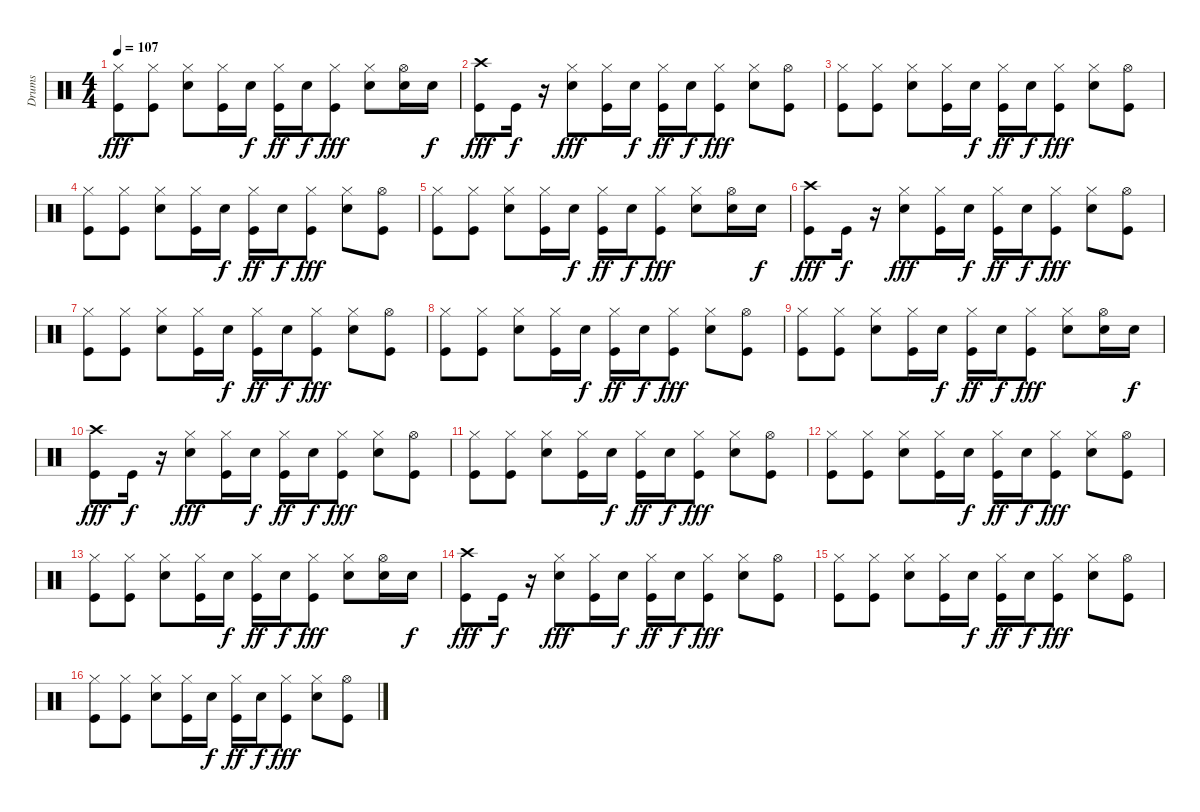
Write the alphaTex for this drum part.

\track ("Drums" "Drums") {instrument percussion}
\staff {score}
\articulation defaults
\ts (4 4)
\tempo 107
\clef neutral
\ks c
("Kick (hit)" "Hi-Hat (closed)").8{dy fff} ("Kick (hit)" "Hi-Hat (closed)").8 ("Electric Snare (hit)" "Hi-Hat (closed)").8 ("Kick (hit)" "Hi-Hat (closed)").16 "Electric Snare (hit)".16{dy f} ("Kick (hit)" "Hi-Hat (closed)").16{dy ff} "Electric Snare (hit)".16{dy f} ("Kick (hit)" "Hi-Hat (closed)").8{dy fff} ("Electric Snare (hit)" "Hi-Hat (closed)").8 ("Electric Snare (hit)" "Hi-Hat (open)").16 "Electric Snare (hit)".16{dy f} |
("Kick (hit)" "Crash high (hit)").8{dy fff} "Kick (hit)".16{dy f} r.16 ("Electric Snare (hit)" "Hi-Hat (closed)").8{dy fff} ("Kick (hit)" "Hi-Hat (closed)").16 "Electric Snare (hit)".16{dy f} ("Kick (hit)" "Hi-Hat (closed)").16{dy ff} "Electric Snare (hit)".16{dy f} ("Kick (hit)" "Hi-Hat (closed)").8{dy fff} ("Electric Snare (hit)" "Hi-Hat (closed)").8 ("Kick (hit)" "Hi-Hat (open)").8 |
("Kick (hit)" "Hi-Hat (closed)").8 ("Kick (hit)" "Hi-Hat (closed)").8 ("Electric Snare (hit)" "Hi-Hat (closed)").8 ("Kick (hit)" "Hi-Hat (closed)").16 "Electric Snare (hit)".16{dy f} ("Kick (hit)" "Hi-Hat (closed)").16{dy ff} "Electric Snare (hit)".16{dy f} ("Kick (hit)" "Hi-Hat (closed)").8{dy fff} ("Electric Snare (hit)" "Hi-Hat (closed)").8 ("Kick (hit)" "Hi-Hat (open)").8 |
("Kick (hit)" "Hi-Hat (closed)").8 ("Kick (hit)" "Hi-Hat (closed)").8 ("Electric Snare (hit)" "Hi-Hat (closed)").8 ("Kick (hit)" "Hi-Hat (closed)").16 "Electric Snare (hit)".16{dy f} ("Kick (hit)" "Hi-Hat (closed)").16{dy ff} "Electric Snare (hit)".16{dy f} ("Kick (hit)" "Hi-Hat (closed)").8{dy fff} ("Electric Snare (hit)" "Hi-Hat (closed)").8 ("Kick (hit)" "Hi-Hat (open)").8 |
("Kick (hit)" "Hi-Hat (closed)").8 ("Kick (hit)" "Hi-Hat (closed)").8 ("Electric Snare (hit)" "Hi-Hat (closed)").8 ("Kick (hit)" "Hi-Hat (closed)").16 "Electric Snare (hit)".16{dy f} ("Kick (hit)" "Hi-Hat (closed)").16{dy ff} "Electric Snare (hit)".16{dy f} ("Kick (hit)" "Hi-Hat (closed)").8{dy fff} ("Electric Snare (hit)" "Hi-Hat (closed)").8 ("Electric Snare (hit)" "Hi-Hat (open)").16 "Electric Snare (hit)".16{dy f} |
("Kick (hit)" "Crash high (hit)").8{dy fff} "Kick (hit)".16{dy f} r.16 ("Electric Snare (hit)" "Hi-Hat (closed)").8{dy fff} ("Kick (hit)" "Hi-Hat (closed)").16 "Electric Snare (hit)".16{dy f} ("Kick (hit)" "Hi-Hat (closed)").16{dy ff} "Electric Snare (hit)".16{dy f} ("Kick (hit)" "Hi-Hat (closed)").8{dy fff} ("Electric Snare (hit)" "Hi-Hat (closed)").8 ("Kick (hit)" "Hi-Hat (open)").8 |
("Kick (hit)" "Hi-Hat (closed)").8 ("Kick (hit)" "Hi-Hat (closed)").8 ("Electric Snare (hit)" "Hi-Hat (closed)").8 ("Kick (hit)" "Hi-Hat (closed)").16 "Electric Snare (hit)".16{dy f} ("Kick (hit)" "Hi-Hat (closed)").16{dy ff} "Electric Snare (hit)".16{dy f} ("Kick (hit)" "Hi-Hat (closed)").8{dy fff} ("Electric Snare (hit)" "Hi-Hat (closed)").8 ("Kick (hit)" "Hi-Hat (open)").8 |
("Kick (hit)" "Hi-Hat (closed)").8 ("Kick (hit)" "Hi-Hat (closed)").8 ("Electric Snare (hit)" "Hi-Hat (closed)").8 ("Kick (hit)" "Hi-Hat (closed)").16 "Electric Snare (hit)".16{dy f} ("Kick (hit)" "Hi-Hat (closed)").16{dy ff} "Electric Snare (hit)".16{dy f} ("Kick (hit)" "Hi-Hat (closed)").8{dy fff} ("Electric Snare (hit)" "Hi-Hat (closed)").8 ("Kick (hit)" "Hi-Hat (open)").8 |
("Kick (hit)" "Hi-Hat (closed)").8 ("Kick (hit)" "Hi-Hat (closed)").8 ("Electric Snare (hit)" "Hi-Hat (closed)").8 ("Kick (hit)" "Hi-Hat (closed)").16 "Electric Snare (hit)".16{dy f} ("Kick (hit)" "Hi-Hat (closed)").16{dy ff} "Electric Snare (hit)".16{dy f} ("Kick (hit)" "Hi-Hat (closed)").8{dy fff} ("Electric Snare (hit)" "Hi-Hat (closed)").8 ("Electric Snare (hit)" "Hi-Hat (open)").16 "Electric Snare (hit)".16{dy f} |
("Kick (hit)" "Crash high (hit)").8{dy fff} "Kick (hit)".16{dy f} r.16 ("Electric Snare (hit)" "Hi-Hat (closed)").8{dy fff} ("Kick (hit)" "Hi-Hat (closed)").16 "Electric Snare (hit)".16{dy f} ("Kick (hit)" "Hi-Hat (closed)").16{dy ff} "Electric Snare (hit)".16{dy f} ("Kick (hit)" "Hi-Hat (closed)").8{dy fff} ("Electric Snare (hit)" "Hi-Hat (closed)").8 ("Kick (hit)" "Hi-Hat (open)").8 |
("Kick (hit)" "Hi-Hat (closed)").8 ("Kick (hit)" "Hi-Hat (closed)").8 ("Electric Snare (hit)" "Hi-Hat (closed)").8 ("Kick (hit)" "Hi-Hat (closed)").16 "Electric Snare (hit)".16{dy f} ("Kick (hit)" "Hi-Hat (closed)").16{dy ff} "Electric Snare (hit)".16{dy f} ("Kick (hit)" "Hi-Hat (closed)").8{dy fff} ("Electric Snare (hit)" "Hi-Hat (closed)").8 ("Kick (hit)" "Hi-Hat (open)").8 |
("Kick (hit)" "Hi-Hat (closed)").8 ("Kick (hit)" "Hi-Hat (closed)").8 ("Electric Snare (hit)" "Hi-Hat (closed)").8 ("Kick (hit)" "Hi-Hat (closed)").16 "Electric Snare (hit)".16{dy f} ("Kick (hit)" "Hi-Hat (closed)").16{dy ff} "Electric Snare (hit)".16{dy f} ("Kick (hit)" "Hi-Hat (closed)").8{dy fff} ("Electric Snare (hit)" "Hi-Hat (closed)").8 ("Kick (hit)" "Hi-Hat (open)").8 |
("Kick (hit)" "Hi-Hat (closed)").8 ("Kick (hit)" "Hi-Hat (closed)").8 ("Electric Snare (hit)" "Hi-Hat (closed)").8 ("Kick (hit)" "Hi-Hat (closed)").16 "Electric Snare (hit)".16{dy f} ("Kick (hit)" "Hi-Hat (closed)").16{dy ff} "Electric Snare (hit)".16{dy f} ("Kick (hit)" "Hi-Hat (closed)").8{dy fff} ("Electric Snare (hit)" "Hi-Hat (closed)").8 ("Electric Snare (hit)" "Hi-Hat (open)").16 "Electric Snare (hit)".16{dy f} |
("Kick (hit)" "Crash high (hit)").8{dy fff} "Kick (hit)".16{dy f} r.16 ("Electric Snare (hit)" "Hi-Hat (closed)").8{dy fff} ("Kick (hit)" "Hi-Hat (closed)").16 "Electric Snare (hit)".16{dy f} ("Kick (hit)" "Hi-Hat (closed)").16{dy ff} "Electric Snare (hit)".16{dy f} ("Kick (hit)" "Hi-Hat (closed)").8{dy fff} ("Electric Snare (hit)" "Hi-Hat (closed)").8 ("Kick (hit)" "Hi-Hat (open)").8 |
("Kick (hit)" "Hi-Hat (closed)").8 ("Kick (hit)" "Hi-Hat (closed)").8 ("Electric Snare (hit)" "Hi-Hat (closed)").8 ("Kick (hit)" "Hi-Hat (closed)").16 "Electric Snare (hit)".16{dy f} ("Kick (hit)" "Hi-Hat (closed)").16{dy ff} "Electric Snare (hit)".16{dy f} ("Kick (hit)" "Hi-Hat (closed)").8{dy fff} ("Electric Snare (hit)" "Hi-Hat (closed)").8 ("Kick (hit)" "Hi-Hat (open)").8 |
("Kick (hit)" "Hi-Hat (closed)").8 ("Kick (hit)" "Hi-Hat (closed)").8 ("Electric Snare (hit)" "Hi-Hat (closed)").8 ("Kick (hit)" "Hi-Hat (closed)").16 "Electric Snare (hit)".16{dy f} ("Kick (hit)" "Hi-Hat (closed)").16{dy ff} "Electric Snare (hit)".16{dy f} ("Kick (hit)" "Hi-Hat (closed)").8{dy fff} ("Electric Snare (hit)" "Hi-Hat (closed)").8 ("Kick (hit)" "Hi-Hat (open)").8
